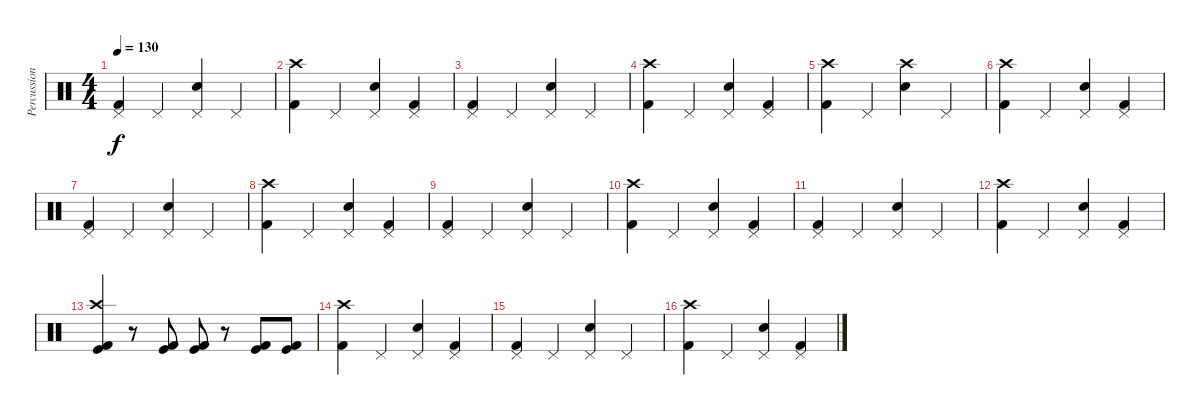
\track ("Percussions" "Percussion") {instrument percussion}
\staff {score}
\articulation defaults
\ts (4 4)
\tempo 130
\clef neutral
\ks c
("Pedal Hi-Hat (hit)" "Kick (hit) 2").4{dy f} "Pedal Hi-Hat (hit)".4 ("Pedal Hi-Hat (hit)" "Snare (hit) 2").4 "Pedal Hi-Hat (hit)".4 |
("Crash high (hit)" "Kick (hit) 2").4 "Pedal Hi-Hat (hit)".4 ("Pedal Hi-Hat (hit)" "Snare (hit) 2").4 ("Pedal Hi-Hat (hit)" "Kick (hit) 2").4 |
("Pedal Hi-Hat (hit)" "Kick (hit) 2").4 "Pedal Hi-Hat (hit)".4 ("Pedal Hi-Hat (hit)" "Snare (hit) 2").4 "Pedal Hi-Hat (hit)".4 |
("Crash high (hit)" "Kick (hit) 2").4 "Pedal Hi-Hat (hit)".4 ("Pedal Hi-Hat (hit)" "Snare (hit) 2").4 ("Pedal Hi-Hat (hit)" "Kick (hit) 2").4 |
("Crash high (hit)" "Kick (hit) 2").4 "Pedal Hi-Hat (hit)".4 ("Crash high (hit)" "Snare (hit) 2").4 "Pedal Hi-Hat (hit)".4 |
("Crash high (hit)" "Kick (hit) 2").4 "Pedal Hi-Hat (hit)".4 ("Pedal Hi-Hat (hit)" "Snare (hit) 2").4 ("Pedal Hi-Hat (hit)" "Kick (hit) 2").4 |
("Pedal Hi-Hat (hit)" "Kick (hit) 2").4 "Pedal Hi-Hat (hit)".4 ("Pedal Hi-Hat (hit)" "Snare (hit) 2").4 "Pedal Hi-Hat (hit)".4 |
("Crash high (hit)" "Kick (hit) 2").4 "Pedal Hi-Hat (hit)".4 ("Pedal Hi-Hat (hit)" "Snare (hit) 2").4 ("Pedal Hi-Hat (hit)" "Kick (hit) 2").4 |
("Pedal Hi-Hat (hit)" "Kick (hit) 2").4 "Pedal Hi-Hat (hit)".4 ("Pedal Hi-Hat (hit)" "Snare (hit) 2").4 "Pedal Hi-Hat (hit)".4 |
("Crash high (hit)" "Kick (hit) 2").4 "Pedal Hi-Hat (hit)".4 ("Pedal Hi-Hat (hit)" "Snare (hit) 2").4 ("Pedal Hi-Hat (hit)" "Kick (hit) 2").4 |
("Pedal Hi-Hat (hit)" "Kick (hit) 2").4 "Pedal Hi-Hat (hit)".4 ("Pedal Hi-Hat (hit)" "Snare (hit) 2").4 "Pedal Hi-Hat (hit)".4 |
("Crash high (hit)" "Kick (hit) 2").4 "Pedal Hi-Hat (hit)".4 ("Pedal Hi-Hat (hit)" "Snare (hit) 2").4 ("Pedal Hi-Hat (hit)" "Kick (hit) 2").4 |
("Crash high (hit)" "Kick (hit)" "Kick (hit) 2").4 r.8 ("Kick (hit)" "Kick (hit) 2").8 ("Kick (hit)" "Kick (hit) 2").8 r.8 ("Kick (hit)" "Kick (hit) 2").8 ("Kick (hit)" "Kick (hit) 2").8 |
("Crash high (hit)" "Kick (hit) 2").4 "Pedal Hi-Hat (hit)".4 ("Pedal Hi-Hat (hit)" "Snare (hit) 2").4 ("Pedal Hi-Hat (hit)" "Kick (hit) 2").4 |
("Pedal Hi-Hat (hit)" "Kick (hit) 2").4 "Pedal Hi-Hat (hit)".4 ("Pedal Hi-Hat (hit)" "Snare (hit) 2").4 "Pedal Hi-Hat (hit)".4 |
("Crash high (hit)" "Kick (hit) 2").4 "Pedal Hi-Hat (hit)".4 ("Pedal Hi-Hat (hit)" "Snare (hit) 2").4 ("Pedal Hi-Hat (hit)" "Kick (hit) 2").4
